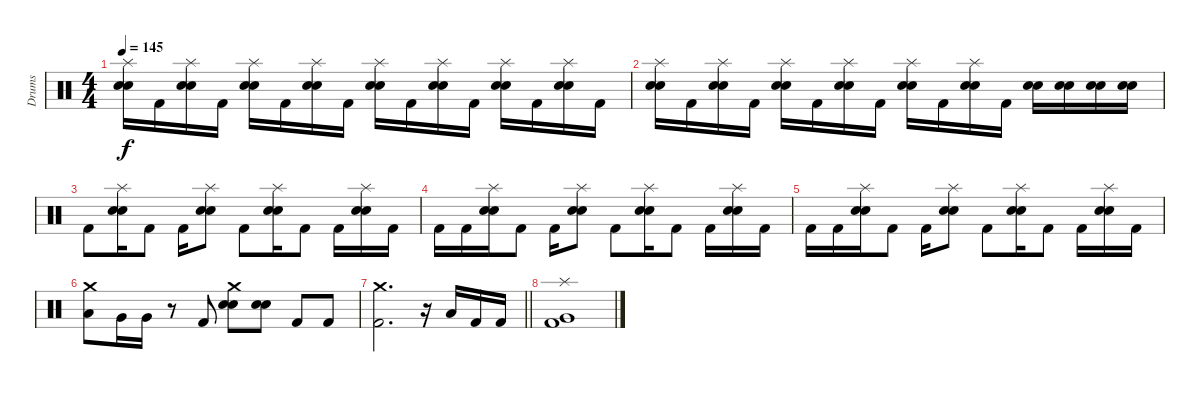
\track ("Drums" "Drums") {instrument percussion}
\staff {score}
\articulation defaults
\ts (4 4)
\tempo 145
\clef neutral
\ks c
("Splash (hit)" "Electric Snare (hit)" "Snare (hit) 2").16{dy f} "Kick (hit) 2".16 ("Splash (hit)" "Electric Snare (hit)" "Snare (hit) 2").16 "Kick (hit) 2".16 ("Splash (hit)" "Electric Snare (hit)" "Snare (hit) 2").16 "Kick (hit) 2".16 ("Splash (hit)" "Electric Snare (hit)" "Snare (hit) 2").16 "Kick (hit) 2".16 ("Splash (hit)" "Electric Snare (hit)" "Snare (hit) 2").16 "Kick (hit) 2".16 ("Splash (hit)" "Electric Snare (hit)" "Snare (hit) 2").16 "Kick (hit) 2".16 ("Splash (hit)" "Electric Snare (hit)" "Snare (hit) 2").16 "Kick (hit) 2".16 ("Splash (hit)" "Electric Snare (hit)" "Snare (hit) 2").16 "Kick (hit) 2".16 |
("Splash (hit)" "Electric Snare (hit)" "Snare (hit) 2").16 "Kick (hit) 2".16 ("Splash (hit)" "Electric Snare (hit)" "Snare (hit) 2").16 "Kick (hit) 2".16 ("Splash (hit)" "Electric Snare (hit)" "Snare (hit) 2").16 "Kick (hit) 2".16 ("Splash (hit)" "Electric Snare (hit)" "Snare (hit) 2").16 "Kick (hit) 2".16 ("Splash (hit)" "Electric Snare (hit)" "Snare (hit) 2").16 "Kick (hit) 2".16 ("Splash (hit)" "Electric Snare (hit)" "Snare (hit) 2").16 "Kick (hit) 2".16 ("Electric Snare (hit)" "Snare (hit) 2").16 ("Electric Snare (hit)" "Snare (hit) 2").16 ("Electric Snare (hit)" "Snare (hit) 2").16 ("Electric Snare (hit)" "Snare (hit) 2").16 |
"Kick (hit) 2".8 ("Splash (hit)" "Electric Snare (hit)" "Snare (hit) 2").16 "Kick (hit) 2".8 "Kick (hit) 2".16 ("Splash (hit)" "Electric Snare (hit)" "Snare (hit) 2").8 "Kick (hit) 2".8 ("Splash (hit)" "Electric Snare (hit)" "Snare (hit) 2").16 "Kick (hit) 2".8 "Kick (hit) 2".16 ("Splash (hit)" "Electric Snare (hit)" "Snare (hit) 2").16 "Kick (hit) 2".16 |
"Kick (hit) 2".16 "Kick (hit) 2".16 ("Splash (hit)" "Electric Snare (hit)" "Snare (hit) 2").16 "Kick (hit) 2".8 "Kick (hit) 2".16 ("Splash (hit)" "Electric Snare (hit)" "Snare (hit) 2").8 "Kick (hit) 2".8 ("Splash (hit)" "Electric Snare (hit)" "Snare (hit) 2").16 "Kick (hit) 2".8 "Kick (hit) 2".16 ("Splash (hit)" "Electric Snare (hit)" "Snare (hit) 2").16 "Kick (hit) 2".16 |
"Kick (hit) 2".16 "Kick (hit) 2".16 ("Splash (hit)" "Electric Snare (hit)" "Snare (hit) 2").16 "Kick (hit) 2".8 "Kick (hit) 2".16 ("Splash (hit)" "Electric Snare (hit)" "Snare (hit) 2").8 "Kick (hit) 2".8 ("Splash (hit)" "Electric Snare (hit)" "Snare (hit) 2").16 "Kick (hit) 2".8 "Kick (hit) 2".16 ("Splash (hit)" "Electric Snare (hit)" "Snare (hit) 2").16 "Kick (hit) 2".16 |
("Crash medium (hit)" "Low Tom (hit)").8 "Very Low Tom (hit)".16 "Very Low Tom (hit)".16 r.8 "Kick (hit) 2".8 ("Crash medium (hit)" "Electric Snare (hit)" "Snare (hit) 2").8 ("Electric Snare (hit)" "Snare (hit) 2").8 "Kick (hit) 2".8 "Kick (hit) 2".8 |
\barLineRight lightlight
("Crash medium (hit)" "Kick (hit) 2").2{d} r.16 "Low Tom (hit)".16 "Kick (hit) 2".16 "Kick (hit) 2".16 |
("Splash (hit)" "Very Low Tom (hit)" "Kick (hit) 2").1
